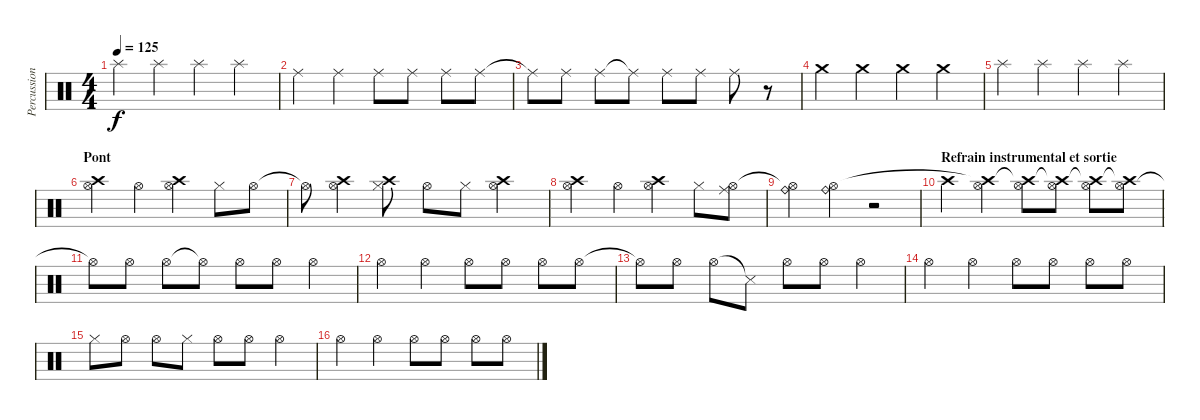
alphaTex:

\track ("Percussions" "Percussion") {instrument percussion}
\staff {score}
\articulation defaults
\ts (4 4)
\tempo 125
\clef neutral
\ks c "Splash (hit)".4{dy f} "Splash (hit)".4 "Splash (hit)".4 "Splash (hit)".4
|
"Ride (middle)".4 "Ride (middle)".4 "Ride (middle)".8 "Ride (middle)".8 "Ride (middle)".8 "Ride (middle)".8 |
"Ride (middle)"{t}.8 "Ride (middle)".8 "Ride (middle)".8 "Ride (middle)"{t}.8 "Ride (middle)".8 "Ride (middle)".8 "Ride (middle)".8 r.8 |
"Crash medium (hit)".4 "Crash medium (hit)".4 "Crash medium (hit)".4 "Crash medium (hit)".4 |
"Splash (hit)".4 "Splash (hit)".4 "Splash (hit)".4 "Splash (hit)".4 |
\section ("" "Pont")
("Crash high (hit)" "Hi-Hat (open)").4 "Hi-Hat (open)".4 ("Crash high (hit)" "Hi-Hat (open)").4 "Hi-Hat (closed)".8 "Hi-Hat (open)".8 |
"Hi-Hat (open)"{t}.8 ("Crash high (hit)" "Hi-Hat (open)").4 ("Crash high (hit)" "Hi-Hat (closed)").8 "Hi-Hat (open)".8 "Hi-Hat (closed)".8 ("Crash high (hit)" "Hi-Hat (open)").4 |
("Crash high (hit)" "Hi-Hat (open)").4 "Hi-Hat (open)".4 ("Crash high (hit)" "Hi-Hat (open)").4 "Hi-Hat (closed)".8 ("Ride (middle)" "Hi-Hat (open)").8 |
("Ride (bell)" "Hi-Hat (open)"{t}).4 ("Ride (bell)" "Hi-Hat (open)").4 r.2 |
\section ("" "Refrain instrumental et sortie")
"Crash high (hit)".4 ("Hi-Hat (open)" "Crash high (hit)"{t}).4 ("Hi-Hat (open)" "Crash high (hit)"{t}).8 ("Hi-Hat (open)" "Crash high (hit)"{t}).8 ("Hi-Hat (open)" "Crash high (hit)"{t}).8 ("Hi-Hat (open)" "Crash high (hit)"{t}).8 |
"Hi-Hat (open)"{t}.8 "Hi-Hat (open)".8 "Hi-Hat (open)".8 "Hi-Hat (open)"{t}.8 "Hi-Hat (open)".8 "Hi-Hat (open)".8 "Hi-Hat (open)".4 |
"Hi-Hat (open)".4 "Hi-Hat (open)".4 "Hi-Hat (open)".8 "Hi-Hat (open)".8 "Hi-Hat (open)".8 "Hi-Hat (open)".8 |
"Hi-Hat (open)"{t}.8 "Hi-Hat (open)".8 "Hi-Hat (open)".8 "Snare (side stick) 3"{t}.8 "Hi-Hat (open)".8 "Hi-Hat (open)".8 "Hi-Hat (open)".4 |
"Hi-Hat (open)".4 "Hi-Hat (open)".4 "Hi-Hat (open)".8 "Hi-Hat (open)".8 "Hi-Hat (open)".8 "Hi-Hat (open)".8 |
"Hi-Hat (closed)".8 "Hi-Hat (open)".8 "Hi-Hat (open)".8 "Hi-Hat (closed)".8 "Hi-Hat (open)".8 "Hi-Hat (open)".8 "Hi-Hat (open)".4 |
"Hi-Hat (open)".4 "Hi-Hat (open)".4 "Hi-Hat (open)".8 "Hi-Hat (open)".8 "Hi-Hat (open)".8 "Hi-Hat (open)".8
